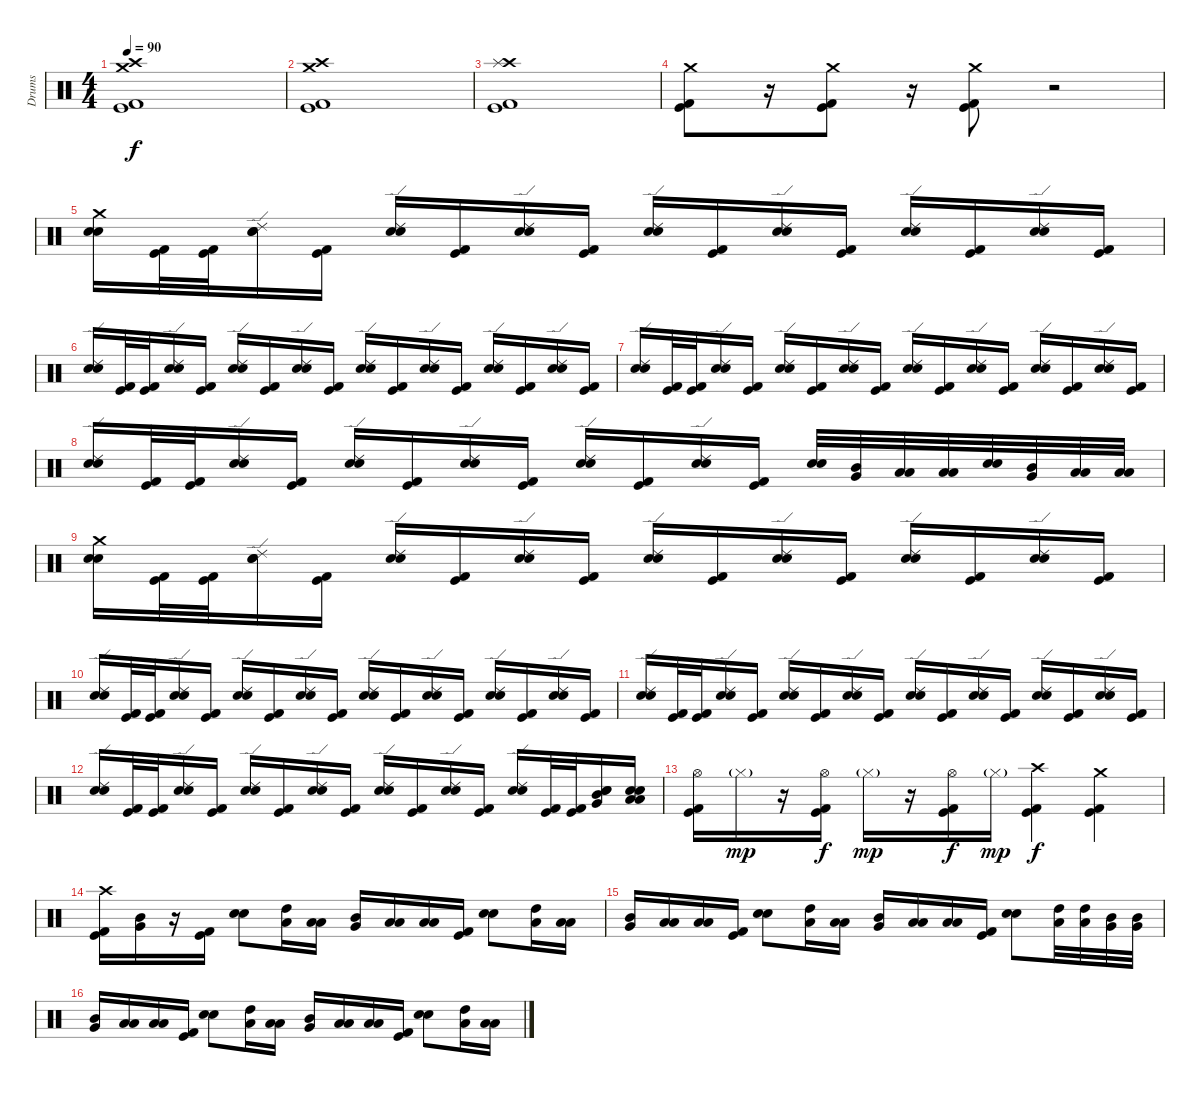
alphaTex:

\track ("Drums" "Drums") {instrument percussion}
\staff {score}
\articulation defaults
\ts (4 4)
\tempo 90
\clef neutral
\ks c
("Crash high (hit)" "Crash medium (hit)" "Kick (hit) 2" "Kick (hit)").1{dy f} |
("Crash high (hit)" "Crash medium (hit)" "Kick (hit) 2" "Kick (hit)").1 |
("Crash high (hit)" "Splash (hit)" "Kick (hit) 2" "Kick (hit)").1 |
("Crash medium (hit)" "Kick (hit) 2" "Kick (hit)").8 r.16 ("Crash medium (hit)" "Kick (hit) 2" "Kick (hit)").8 r.16 ("Crash medium (hit)" "Kick (hit) 2" "Kick (hit)").8 r.2 |
("Crash medium (hit)" "Electric Snare (hit)" "Snare (hit) 2").16 ("Kick (hit) 2" "Kick (hit)").32 ("Kick (hit) 2" "Kick (hit)").32 ("Ride (edge) 2" "Electric Snare (hit)" "Snare (hit) 2").16 ("Kick (hit) 2" "Kick (hit)").16 ("Ride (edge) 2" "Electric Snare (hit)" "Snare (hit) 2").16 ("Kick (hit) 2" "Kick (hit)").16 ("Ride (edge) 2" "Electric Snare (hit)" "Snare (hit) 2").16 ("Kick (hit) 2" "Kick (hit)").16 ("Ride (edge) 2" "Electric Snare (hit)" "Snare (hit) 2").16 ("Kick (hit) 2" "Kick (hit)").16 ("Ride (edge) 2" "Electric Snare (hit)" "Snare (hit) 2").16 ("Kick (hit) 2" "Kick (hit)").16 ("Ride (edge) 2" "Electric Snare (hit)" "Snare (hit) 2").16 ("Kick (hit) 2" "Kick (hit)").16 ("Ride (edge) 2" "Electric Snare (hit)" "Snare (hit) 2").16 ("Kick (hit) 2" "Kick (hit)").16 |
("Ride (edge) 2" "Electric Snare (hit)" "Snare (hit) 2").16 ("Kick (hit) 2" "Kick (hit)").32 ("Kick (hit) 2" "Kick (hit)").32 ("Ride (edge) 2" "Electric Snare (hit)" "Snare (hit) 2").16 ("Kick (hit) 2" "Kick (hit)").16 ("Ride (edge) 2" "Electric Snare (hit)" "Snare (hit) 2").16 ("Kick (hit) 2" "Kick (hit)").16 ("Ride (edge) 2" "Electric Snare (hit)" "Snare (hit) 2").16 ("Kick (hit) 2" "Kick (hit)").16 ("Ride (edge) 2" "Electric Snare (hit)" "Snare (hit) 2").16 ("Kick (hit) 2" "Kick (hit)").16 ("Ride (edge) 2" "Electric Snare (hit)" "Snare (hit) 2").16 ("Kick (hit) 2" "Kick (hit)").16 ("Ride (edge) 2" "Electric Snare (hit)" "Snare (hit) 2").16 ("Kick (hit) 2" "Kick (hit)").16 ("Ride (edge) 2" "Electric Snare (hit)" "Snare (hit) 2").16 ("Kick (hit) 2" "Kick (hit)").16 |
("Ride (edge) 2" "Electric Snare (hit)" "Snare (hit) 2").16 ("Kick (hit) 2" "Kick (hit)").32 ("Kick (hit) 2" "Kick (hit)").32 ("Ride (edge) 2" "Electric Snare (hit)" "Snare (hit) 2").16 ("Kick (hit) 2" "Kick (hit)").16 ("Ride (edge) 2" "Electric Snare (hit)" "Snare (hit) 2").16 ("Kick (hit) 2" "Kick (hit)").16 ("Ride (edge) 2" "Electric Snare (hit)" "Snare (hit) 2").16 ("Kick (hit) 2" "Kick (hit)").16 ("Ride (edge) 2" "Electric Snare (hit)" "Snare (hit) 2").16 ("Kick (hit) 2" "Kick (hit)").16 ("Ride (edge) 2" "Electric Snare (hit)" "Snare (hit) 2").16 ("Kick (hit) 2" "Kick (hit)").16 ("Ride (edge) 2" "Electric Snare (hit)" "Snare (hit) 2").16 ("Kick (hit) 2" "Kick (hit)").16 ("Ride (edge) 2" "Electric Snare (hit)" "Snare (hit) 2").16 ("Kick (hit) 2" "Kick (hit)").16 |
("Ride (edge) 2" "Electric Snare (hit)" "Snare (hit) 2").16 ("Kick (hit) 2" "Kick (hit)").32 ("Kick (hit) 2" "Kick (hit)").32 ("Ride (edge) 2" "Electric Snare (hit)" "Snare (hit) 2").16 ("Kick (hit) 2" "Kick (hit)").16 ("Ride (edge) 2" "Electric Snare (hit)" "Snare (hit) 2").16 ("Kick (hit) 2" "Kick (hit)").16 ("Ride (edge) 2" "Electric Snare (hit)" "Snare (hit) 2").16 ("Kick (hit) 2" "Kick (hit)").16 ("Ride (edge) 2" "Electric Snare (hit)" "Snare (hit) 2").16 ("Kick (hit) 2" "Kick (hit)").16 ("Ride (edge) 2" "Electric Snare (hit)" "Snare (hit) 2").16 ("Kick (hit) 2" "Kick (hit)").16 ("Electric Snare (hit)" "Snare (hit) 2").32 ("Mid Tom (hit)" "Very Low Tom (hit)").32 ("Low Tom (hit)" "Low Floor Tom (hit)").32 ("Low Tom (hit)" "Low Floor Tom (hit)").32 ("Electric Snare (hit)" "Snare (hit) 2").32 ("Mid Tom (hit)" "Very Low Tom (hit)").32 ("Low Tom (hit)" "Low Floor Tom (hit)").32 ("Low Tom (hit)" "Low Floor Tom (hit)").32 |
("Crash medium (hit)" "Electric Snare (hit)" "Snare (hit) 2").16 ("Kick (hit) 2" "Kick (hit)").32 ("Kick (hit) 2" "Kick (hit)").32 ("Ride (edge) 2" "Electric Snare (hit)" "Snare (hit) 2").16 ("Kick (hit) 2" "Kick (hit)").16 ("Ride (edge) 2" "Electric Snare (hit)" "Snare (hit) 2").16 ("Kick (hit) 2" "Kick (hit)").16 ("Ride (edge) 2" "Electric Snare (hit)" "Snare (hit) 2").16 ("Kick (hit) 2" "Kick (hit)").16 ("Ride (edge) 2" "Electric Snare (hit)" "Snare (hit) 2").16 ("Kick (hit) 2" "Kick (hit)").16 ("Ride (edge) 2" "Electric Snare (hit)" "Snare (hit) 2").16 ("Kick (hit) 2" "Kick (hit)").16 ("Ride (edge) 2" "Electric Snare (hit)" "Snare (hit) 2").16 ("Kick (hit) 2" "Kick (hit)").16 ("Ride (edge) 2" "Electric Snare (hit)" "Snare (hit) 2").16 ("Kick (hit) 2" "Kick (hit)").16 |
("Ride (edge) 2" "Electric Snare (hit)" "Snare (hit) 2").16 ("Kick (hit) 2" "Kick (hit)").32 ("Kick (hit) 2" "Kick (hit)").32 ("Ride (edge) 2" "Electric Snare (hit)" "Snare (hit) 2").16 ("Kick (hit) 2" "Kick (hit)").16 ("Ride (edge) 2" "Electric Snare (hit)" "Snare (hit) 2").16 ("Kick (hit) 2" "Kick (hit)").16 ("Ride (edge) 2" "Electric Snare (hit)" "Snare (hit) 2").16 ("Kick (hit) 2" "Kick (hit)").16 ("Ride (edge) 2" "Electric Snare (hit)" "Snare (hit) 2").16 ("Kick (hit) 2" "Kick (hit)").16 ("Ride (edge) 2" "Electric Snare (hit)" "Snare (hit) 2").16 ("Kick (hit) 2" "Kick (hit)").16 ("Ride (edge) 2" "Electric Snare (hit)" "Snare (hit) 2").16 ("Kick (hit) 2" "Kick (hit)").16 ("Ride (edge) 2" "Electric Snare (hit)" "Snare (hit) 2").16 ("Kick (hit) 2" "Kick (hit)").16 |
("Ride (edge) 2" "Electric Snare (hit)" "Snare (hit) 2").16 ("Kick (hit) 2" "Kick (hit)").32 ("Kick (hit) 2" "Kick (hit)").32 ("Ride (edge) 2" "Electric Snare (hit)" "Snare (hit) 2").16 ("Kick (hit) 2" "Kick (hit)").16 ("Ride (edge) 2" "Electric Snare (hit)" "Snare (hit) 2").16 ("Kick (hit) 2" "Kick (hit)").16 ("Ride (edge) 2" "Electric Snare (hit)" "Snare (hit) 2").16 ("Kick (hit) 2" "Kick (hit)").16 ("Ride (edge) 2" "Electric Snare (hit)" "Snare (hit) 2").16 ("Kick (hit) 2" "Kick (hit)").16 ("Ride (edge) 2" "Electric Snare (hit)" "Snare (hit) 2").16 ("Kick (hit) 2" "Kick (hit)").16 ("Ride (edge) 2" "Electric Snare (hit)" "Snare (hit) 2").16 ("Kick (hit) 2" "Kick (hit)").16 ("Ride (edge) 2" "Electric Snare (hit)" "Snare (hit) 2").16 ("Kick (hit) 2" "Kick (hit)").16 |
("Ride (edge) 2" "Electric Snare (hit)" "Snare (hit) 2").16 ("Kick (hit) 2" "Kick (hit)").32 ("Kick (hit) 2" "Kick (hit)").32 ("Ride (edge) 2" "Electric Snare (hit)" "Snare (hit) 2").16 ("Kick (hit) 2" "Kick (hit)").16 ("Ride (edge) 2" "Electric Snare (hit)" "Snare (hit) 2").16 ("Kick (hit) 2" "Kick (hit)").16 ("Ride (edge) 2" "Electric Snare (hit)" "Snare (hit) 2").16 ("Kick (hit) 2" "Kick (hit)").16 ("Ride (edge) 2" "Electric Snare (hit)" "Snare (hit) 2").16 ("Kick (hit) 2" "Kick (hit)").16 ("Ride (edge) 2" "Electric Snare (hit)" "Snare (hit) 2").16 ("Kick (hit) 2" "Kick (hit)").16 ("Ride (edge) 2" "Electric Snare (hit)" "Snare (hit) 2").16 ("Kick (hit) 2" "Kick (hit)").32 ("Kick (hit) 2" "Kick (hit)").32 ("Electric Snare (hit)" "Snare (hit) 2" "Mid Tom (hit)" "Very Low Tom (hit)").16 ("Electric Snare (hit)" "Snare (hit) 2" "Low Tom (hit)" "Low Floor Tom (hit)").16 |
("Hi-Hat (open)" "Kick (hit) 2" "Kick (hit)").16 "Hi-Hat (closed)"{g}.16{dy mp} r.16 ("Hi-Hat (open)" "Kick (hit) 2" "Kick (hit)").16{dy f} "Hi-Hat (closed)"{g}.16{dy mp} r.16 ("Hi-Hat (open)" "Kick (hit) 2" "Kick (hit)").16{dy f} "Hi-Hat (closed)"{g}.16{dy mp} ("Crash high (hit)" "Kick (hit) 2" "Kick (hit)").4{dy f} ("Crash medium (hit)" "Kick (hit) 2" "Kick (hit)").4 |
("Crash high (hit)" "Kick (hit) 2" "Kick (hit)").16 ("Mid Tom (hit)" "Very Low Tom (hit)").16 r.16 ("Kick (hit) 2" "Kick (hit)").16 ("Electric Snare (hit)" "Snare (hit) 2").8 ("High Tom (hit)" "Low Tom (hit)").16 ("Low Tom (hit)" "Low Floor Tom (hit)").16 ("Mid Tom (hit)" "Very Low Tom (hit)").16 ("Low Tom (hit)" "Low Floor Tom (hit)").16 ("Low Tom (hit)" "Low Floor Tom (hit)").16 ("Kick (hit) 2" "Kick (hit)").16 ("Electric Snare (hit)" "Snare (hit) 2").8 ("High Tom (hit)" "Low Tom (hit)").16 ("Low Tom (hit)" "Low Floor Tom (hit)").16 |
("Mid Tom (hit)" "Very Low Tom (hit)").16 ("Low Tom (hit)" "Low Floor Tom (hit)").16 ("Low Tom (hit)" "Low Floor Tom (hit)").16 ("Kick (hit) 2" "Kick (hit)").16 ("Electric Snare (hit)" "Snare (hit) 2").8 ("High Tom (hit)" "Low Tom (hit)").16 ("Low Tom (hit)" "Low Floor Tom (hit)").16 ("Mid Tom (hit)" "Very Low Tom (hit)").16 ("Low Tom (hit)" "Low Floor Tom (hit)").16 ("Low Tom (hit)" "Low Floor Tom (hit)").16 ("Kick (hit) 2" "Kick (hit)").16 ("Electric Snare (hit)" "Snare (hit) 2").8 ("High Tom (hit)" "Low Tom (hit)").32 ("High Tom (hit)" "Low Tom (hit)").32 ("Mid Tom (hit)" "Very Low Tom (hit)").32 ("Mid Tom (hit)" "Very Low Tom (hit)").32 |
("Mid Tom (hit)" "Very Low Tom (hit)").16 ("Low Tom (hit)" "Low Floor Tom (hit)").16 ("Low Tom (hit)" "Low Floor Tom (hit)").16 ("Kick (hit) 2" "Kick (hit)").16 ("Electric Snare (hit)" "Snare (hit) 2").8 ("High Tom (hit)" "Low Tom (hit)").16 ("Low Tom (hit)" "Low Floor Tom (hit)").16 ("Mid Tom (hit)" "Very Low Tom (hit)").16 ("Low Tom (hit)" "Low Floor Tom (hit)").16 ("Low Tom (hit)" "Low Floor Tom (hit)").16 ("Kick (hit) 2" "Kick (hit)").16 ("Electric Snare (hit)" "Snare (hit) 2").8 ("High Tom (hit)" "Low Tom (hit)").16 ("Low Tom (hit)" "Low Floor Tom (hit)").16
